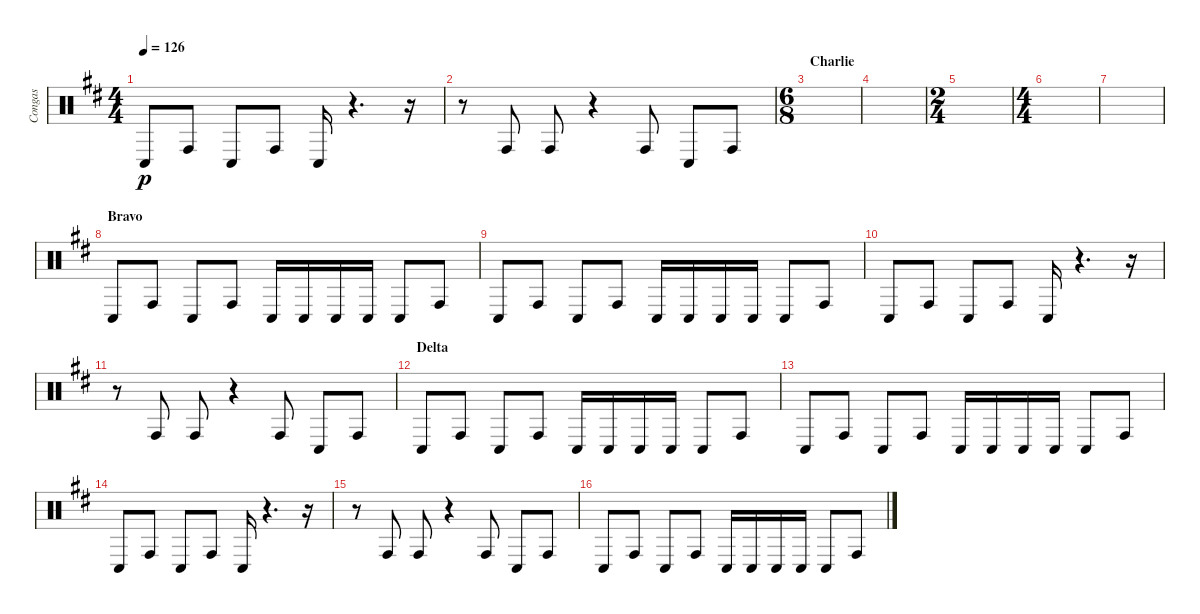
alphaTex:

\track ("Congas" "Congas") {instrument percussion}
\staff {score}
\articulation defaults
\ts (4 4)
\tempo 126
\clef neutral
\ks bminor "Conga low (hit)".8{dy p} "Conga high (hit)".8 "Conga low (hit)".8 "Conga high (hit)".8 "Conga low (hit)".16
r.4{d} r.16 |
r.8 "Conga high (hit)".8 "Conga high (hit)".8 r.4 "Conga high (hit)".8 "Conga low (hit)".8 "Conga high (hit)".8 |
\ts (6 8)
\section ("" "Charlie")
|
|
\ts (2 4)
|
\ts (4 4)
|
|
\section ("" "Bravo")
"Conga low (hit)".8 "Conga high (hit)".8 "Conga low (hit)".8 "Conga high (hit)".8 "Conga low (hit)".16 "Conga low (hit)".16 "Conga low (hit)".16 "Conga low (hit)".16 "Conga low (hit)".8 "Conga high (hit)".8 |
"Conga low (hit)".8 "Conga high (hit)".8 "Conga low (hit)".8 "Conga high (hit)".8 "Conga low (hit)".16 "Conga low (hit)".16 "Conga low (hit)".16 "Conga low (hit)".16 "Conga low (hit)".8 "Conga high (hit)".8 |
"Conga low (hit)".8 "Conga high (hit)".8 "Conga low (hit)".8 "Conga high (hit)".8 "Conga low (hit)".16 r.4{d} r.16 |
r.8 "Conga high (hit)".8 "Conga high (hit)".8 r.4 "Conga high (hit)".8 "Conga low (hit)".8 "Conga high (hit)".8 |
\section ("" "Delta")
"Conga low (hit)".8 "Conga high (hit)".8 "Conga low (hit)".8 "Conga high (hit)".8 "Conga low (hit)".16 "Conga low (hit)".16 "Conga low (hit)".16 "Conga low (hit)".16 "Conga low (hit)".8 "Conga high (hit)".8 |
"Conga low (hit)".8 "Conga high (hit)".8 "Conga low (hit)".8 "Conga high (hit)".8 "Conga low (hit)".16 "Conga low (hit)".16 "Conga low (hit)".16 "Conga low (hit)".16 "Conga low (hit)".8 "Conga high (hit)".8 |
"Conga low (hit)".8 "Conga high (hit)".8 "Conga low (hit)".8 "Conga high (hit)".8 "Conga low (hit)".16 r.4{d} r.16 |
r.8 "Conga high (hit)".8 "Conga high (hit)".8 r.4 "Conga high (hit)".8 "Conga low (hit)".8 "Conga high (hit)".8 |
"Conga low (hit)".8 "Conga high (hit)".8 "Conga low (hit)".8 "Conga high (hit)".8 "Conga low (hit)".16 "Conga low (hit)".16 "Conga low (hit)".16 "Conga low (hit)".16 "Conga low (hit)".8 "Conga high (hit)".8
